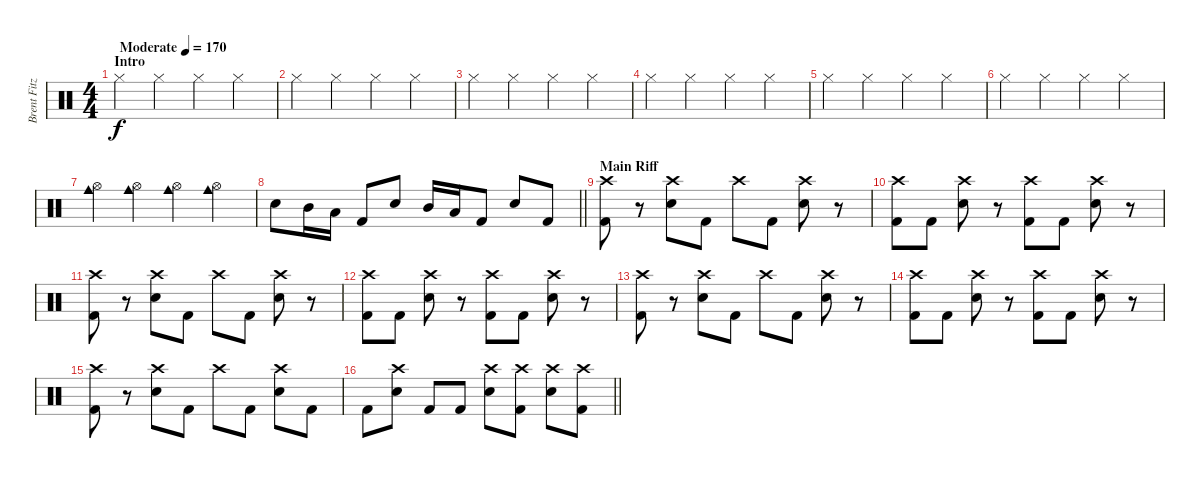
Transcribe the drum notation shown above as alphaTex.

\track ("Brent Fitz" "Brent Fitz") {instrument percussion}
\staff {score}
\articulation defaults
\ts (4 4)
\section ("" "Intro")
\tempo (170 "Moderate")
\clef neutral
\ks c "Hi-Hat (closed)".4{dy f} "Hi-Hat (closed)".4 "Hi-Hat (closed)".4 "Hi-Hat (closed)".4
|
"Hi-Hat (closed)".4 "Hi-Hat (closed)".4 "Hi-Hat (closed)".4 "Hi-Hat (closed)".4 |
"Hi-Hat (closed)".4 "Hi-Hat (closed)".4 "Hi-Hat (closed)".4 "Hi-Hat (closed)".4 |
"Hi-Hat (closed)".4 "Hi-Hat (closed)".4 "Hi-Hat (closed)".4 "Hi-Hat (closed)".4 |
"Hi-Hat (closed)".4 "Hi-Hat (closed)".4 "Hi-Hat (closed)".4 "Hi-Hat (closed)".4 |
"Hi-Hat (closed)".4 "Hi-Hat (closed)".4 "Hi-Hat (closed)".4 "Hi-Hat (closed)".4 |
("Hi-Hat (open)" "Cowbell medium (hit)").4 ("Hi-Hat (open)" "Cowbell medium (hit)").4 ("Hi-Hat (open)" "Cowbell medium (hit)").4 ("Hi-Hat (open)" "Cowbell medium (hit)").4 |
\barLineRight lightlight "Electric Snare (hit)".8 "Mid Tom (hit)".16 "Low Tom (hit)".16 "Kick (hit) 2".8 "Electric Snare (hit)".8 "Mid Tom (hit)".16 "Low Tom (hit)".16 "Kick (hit) 2".8 "Electric Snare (hit)".8 "Kick (hit) 2".8
|
\section ("" "Main Riff")
("Crash high (hit)" "Kick (hit) 2").8 r.8 ("Crash high (hit)" "Electric Snare (hit)").8 "Kick (hit) 2".8 "Crash high (hit)".8 "Kick (hit) 2".8 ("Crash high (hit)" "Electric Snare (hit)").8 r.8 |
("Crash high (hit)" "Kick (hit) 2").8 "Kick (hit) 2".8 ("Crash high (hit)" "Electric Snare (hit)").8 r.8 ("Crash high (hit)" "Kick (hit) 2").8 "Kick (hit) 2".8 ("Crash high (hit)" "Electric Snare (hit)").8 r.8 |
("Crash high (hit)" "Kick (hit) 2").8 r.8 ("Crash high (hit)" "Electric Snare (hit)").8 "Kick (hit) 2".8 "Crash high (hit)".8 "Kick (hit) 2".8 ("Crash high (hit)" "Electric Snare (hit)").8 r.8 |
("Crash high (hit)" "Kick (hit) 2").8 "Kick (hit) 2".8 ("Crash high (hit)" "Electric Snare (hit)").8 r.8 ("Crash high (hit)" "Kick (hit) 2").8 "Kick (hit) 2".8 ("Crash high (hit)" "Electric Snare (hit)").8 r.8 |
("Crash high (hit)" "Kick (hit) 2").8 r.8 ("Crash high (hit)" "Electric Snare (hit)").8 "Kick (hit) 2".8 "Crash high (hit)".8 "Kick (hit) 2".8 ("Crash high (hit)" "Electric Snare (hit)").8 r.8 |
("Crash high (hit)" "Kick (hit) 2").8 "Kick (hit) 2".8 ("Crash high (hit)" "Electric Snare (hit)").8 r.8 ("Crash high (hit)" "Kick (hit) 2").8 "Kick (hit) 2".8 ("Crash high (hit)" "Electric Snare (hit)").8 r.8 |
("Crash high (hit)" "Kick (hit) 2").8 r.8 ("Crash high (hit)" "Electric Snare (hit)").8 "Kick (hit) 2".8 "Crash high (hit)".8 "Kick (hit) 2".8 ("Crash high (hit)" "Electric Snare (hit)").8 "Kick (hit) 2".8 |
\barLineRight lightlight "Kick (hit) 2".8
("Crash high (hit)" "Electric Snare (hit)").8 "Kick (hit) 2".8 "Kick (hit) 2".8 ("Crash high (hit)" "Electric Snare (hit)").8 ("Crash high (hit)" "Kick (hit) 2").8 ("Crash high (hit)" "Electric Snare (hit)").8 ("Crash high (hit)" "Kick (hit) 2").8
